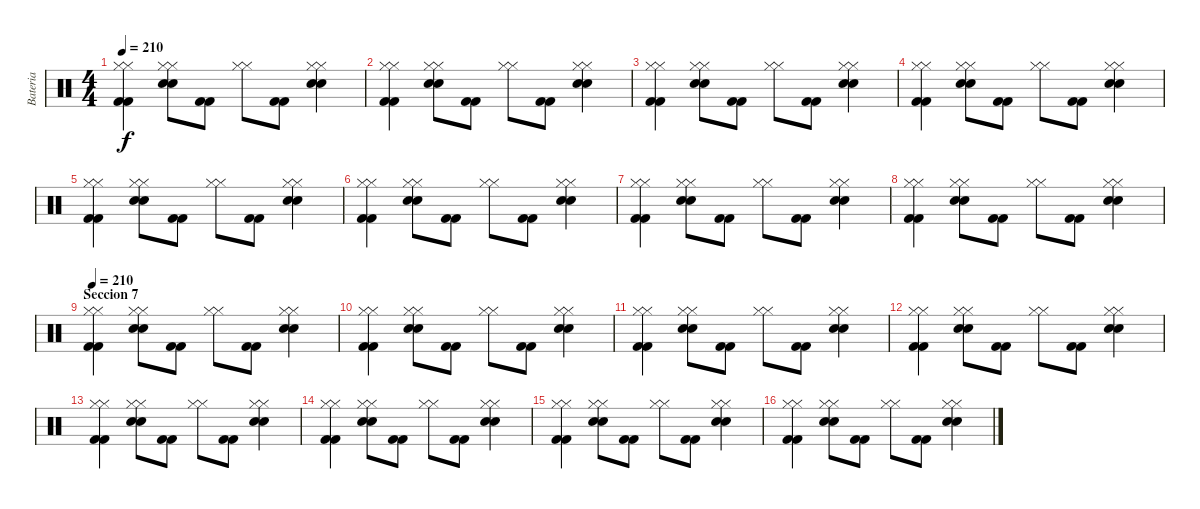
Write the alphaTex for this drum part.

\track ("Bateria" "Bateria") {instrument percussion}
\staff {score}
\articulation defaults
\ts (4 4)
\tempo 210
\clef neutral
\ks c
("Hi-Hat (closed)" "Hi-Hat (closed)" "Kick (hit) 2" "Kick (hit) 2").4{dy f} ("Hi-Hat (closed)" "Hi-Hat (closed)" "Snare (hit) 2" "Snare (hit) 2").8 ("Kick (hit) 2" "Kick (hit) 2").8 ("Hi-Hat (closed)" "Hi-Hat (closed)").8 ("Kick (hit) 2" "Kick (hit) 2").8 ("Hi-Hat (closed)" "Hi-Hat (closed)" "Snare (hit) 2" "Snare (hit) 2").4 |
("Hi-Hat (closed)" "Hi-Hat (closed)" "Kick (hit) 2" "Kick (hit) 2").4 ("Hi-Hat (closed)" "Hi-Hat (closed)" "Snare (hit) 2" "Snare (hit) 2").8 ("Kick (hit) 2" "Kick (hit) 2").8 ("Hi-Hat (closed)" "Hi-Hat (closed)").8 ("Kick (hit) 2" "Kick (hit) 2").8 ("Hi-Hat (closed)" "Hi-Hat (closed)" "Snare (hit) 2" "Snare (hit) 2").4 |
("Hi-Hat (closed)" "Hi-Hat (closed)" "Kick (hit) 2" "Kick (hit) 2").4 ("Hi-Hat (closed)" "Hi-Hat (closed)" "Snare (hit) 2" "Snare (hit) 2").8 ("Kick (hit) 2" "Kick (hit) 2").8 ("Hi-Hat (closed)" "Hi-Hat (closed)").8 ("Kick (hit) 2" "Kick (hit) 2").8 ("Hi-Hat (closed)" "Hi-Hat (closed)" "Snare (hit) 2" "Snare (hit) 2").4 |
("Hi-Hat (closed)" "Hi-Hat (closed)" "Kick (hit) 2" "Kick (hit) 2").4 ("Hi-Hat (closed)" "Hi-Hat (closed)" "Snare (hit) 2" "Snare (hit) 2").8 ("Kick (hit) 2" "Kick (hit) 2").8 ("Hi-Hat (closed)" "Hi-Hat (closed)").8 ("Kick (hit) 2" "Kick (hit) 2").8 ("Hi-Hat (closed)" "Hi-Hat (closed)" "Snare (hit) 2" "Snare (hit) 2").4 |
("Hi-Hat (closed)" "Hi-Hat (closed)" "Kick (hit) 2" "Kick (hit) 2").4 ("Hi-Hat (closed)" "Hi-Hat (closed)" "Snare (hit) 2" "Snare (hit) 2").8 ("Kick (hit) 2" "Kick (hit) 2").8 ("Hi-Hat (closed)" "Hi-Hat (closed)").8 ("Kick (hit) 2" "Kick (hit) 2").8 ("Hi-Hat (closed)" "Hi-Hat (closed)" "Snare (hit) 2" "Snare (hit) 2").4 |
("Hi-Hat (closed)" "Hi-Hat (closed)" "Kick (hit) 2" "Kick (hit) 2").4 ("Hi-Hat (closed)" "Hi-Hat (closed)" "Snare (hit) 2" "Snare (hit) 2").8 ("Kick (hit) 2" "Kick (hit) 2").8 ("Hi-Hat (closed)" "Hi-Hat (closed)").8 ("Kick (hit) 2" "Kick (hit) 2").8 ("Hi-Hat (closed)" "Hi-Hat (closed)" "Snare (hit) 2" "Snare (hit) 2").4 |
("Hi-Hat (closed)" "Hi-Hat (closed)" "Kick (hit) 2" "Kick (hit) 2").4 ("Hi-Hat (closed)" "Hi-Hat (closed)" "Snare (hit) 2" "Snare (hit) 2").8 ("Kick (hit) 2" "Kick (hit) 2").8 ("Hi-Hat (closed)" "Hi-Hat (closed)").8 ("Kick (hit) 2" "Kick (hit) 2").8 ("Hi-Hat (closed)" "Hi-Hat (closed)" "Snare (hit) 2" "Snare (hit) 2").4 |
("Hi-Hat (closed)" "Hi-Hat (closed)" "Kick (hit) 2" "Kick (hit) 2").4 ("Hi-Hat (closed)" "Hi-Hat (closed)" "Snare (hit) 2" "Snare (hit) 2").8 ("Kick (hit) 2" "Kick (hit) 2").8 ("Hi-Hat (closed)" "Hi-Hat (closed)").8 ("Kick (hit) 2" "Kick (hit) 2").8 ("Hi-Hat (closed)" "Hi-Hat (closed)" "Snare (hit) 2" "Snare (hit) 2").4 |
\section ("" "Seccion 7")
\tempo 210
("Hi-Hat (closed)" "Hi-Hat (closed)" "Kick (hit) 2" "Kick (hit) 2").4 ("Hi-Hat (closed)" "Hi-Hat (closed)" "Snare (hit) 2" "Snare (hit) 2").8 ("Kick (hit) 2" "Kick (hit) 2").8 ("Hi-Hat (closed)" "Hi-Hat (closed)").8 ("Kick (hit) 2" "Kick (hit) 2").8 ("Hi-Hat (closed)" "Hi-Hat (closed)" "Snare (hit) 2" "Snare (hit) 2").4 |
("Hi-Hat (closed)" "Hi-Hat (closed)" "Kick (hit) 2" "Kick (hit) 2").4 ("Hi-Hat (closed)" "Hi-Hat (closed)" "Snare (hit) 2" "Snare (hit) 2").8 ("Kick (hit) 2" "Kick (hit) 2").8 ("Hi-Hat (closed)" "Hi-Hat (closed)").8 ("Kick (hit) 2" "Kick (hit) 2").8 ("Hi-Hat (closed)" "Hi-Hat (closed)" "Snare (hit) 2" "Snare (hit) 2").4 |
("Hi-Hat (closed)" "Hi-Hat (closed)" "Kick (hit) 2" "Kick (hit) 2").4 ("Hi-Hat (closed)" "Hi-Hat (closed)" "Snare (hit) 2" "Snare (hit) 2").8 ("Kick (hit) 2" "Kick (hit) 2").8 ("Hi-Hat (closed)" "Hi-Hat (closed)").8 ("Kick (hit) 2" "Kick (hit) 2").8 ("Hi-Hat (closed)" "Hi-Hat (closed)" "Snare (hit) 2" "Snare (hit) 2").4 |
("Hi-Hat (closed)" "Hi-Hat (closed)" "Kick (hit) 2" "Kick (hit) 2").4 ("Hi-Hat (closed)" "Hi-Hat (closed)" "Snare (hit) 2" "Snare (hit) 2").8 ("Kick (hit) 2" "Kick (hit) 2").8 ("Hi-Hat (closed)" "Hi-Hat (closed)").8 ("Kick (hit) 2" "Kick (hit) 2").8 ("Hi-Hat (closed)" "Hi-Hat (closed)" "Snare (hit) 2" "Snare (hit) 2").4 |
("Hi-Hat (closed)" "Hi-Hat (closed)" "Kick (hit) 2" "Kick (hit) 2").4 ("Hi-Hat (closed)" "Hi-Hat (closed)" "Snare (hit) 2" "Snare (hit) 2").8 ("Kick (hit) 2" "Kick (hit) 2").8 ("Hi-Hat (closed)" "Hi-Hat (closed)").8 ("Kick (hit) 2" "Kick (hit) 2").8 ("Hi-Hat (closed)" "Hi-Hat (closed)" "Snare (hit) 2" "Snare (hit) 2").4 |
("Hi-Hat (closed)" "Hi-Hat (closed)" "Kick (hit) 2" "Kick (hit) 2").4 ("Hi-Hat (closed)" "Hi-Hat (closed)" "Snare (hit) 2" "Snare (hit) 2").8 ("Kick (hit) 2" "Kick (hit) 2").8 ("Hi-Hat (closed)" "Hi-Hat (closed)").8 ("Kick (hit) 2" "Kick (hit) 2").8 ("Hi-Hat (closed)" "Hi-Hat (closed)" "Snare (hit) 2" "Snare (hit) 2").4 |
("Hi-Hat (closed)" "Hi-Hat (closed)" "Kick (hit) 2" "Kick (hit) 2").4 ("Hi-Hat (closed)" "Hi-Hat (closed)" "Snare (hit) 2" "Snare (hit) 2").8 ("Kick (hit) 2" "Kick (hit) 2").8 ("Hi-Hat (closed)" "Hi-Hat (closed)").8 ("Kick (hit) 2" "Kick (hit) 2").8 ("Hi-Hat (closed)" "Hi-Hat (closed)" "Snare (hit) 2" "Snare (hit) 2").4 |
("Hi-Hat (closed)" "Hi-Hat (closed)" "Kick (hit) 2" "Kick (hit) 2").4 ("Hi-Hat (closed)" "Hi-Hat (closed)" "Snare (hit) 2" "Snare (hit) 2").8 ("Kick (hit) 2" "Kick (hit) 2").8 ("Hi-Hat (closed)" "Hi-Hat (closed)").8 ("Kick (hit) 2" "Kick (hit) 2").8 ("Hi-Hat (closed)" "Hi-Hat (closed)" "Snare (hit) 2" "Snare (hit) 2").4
